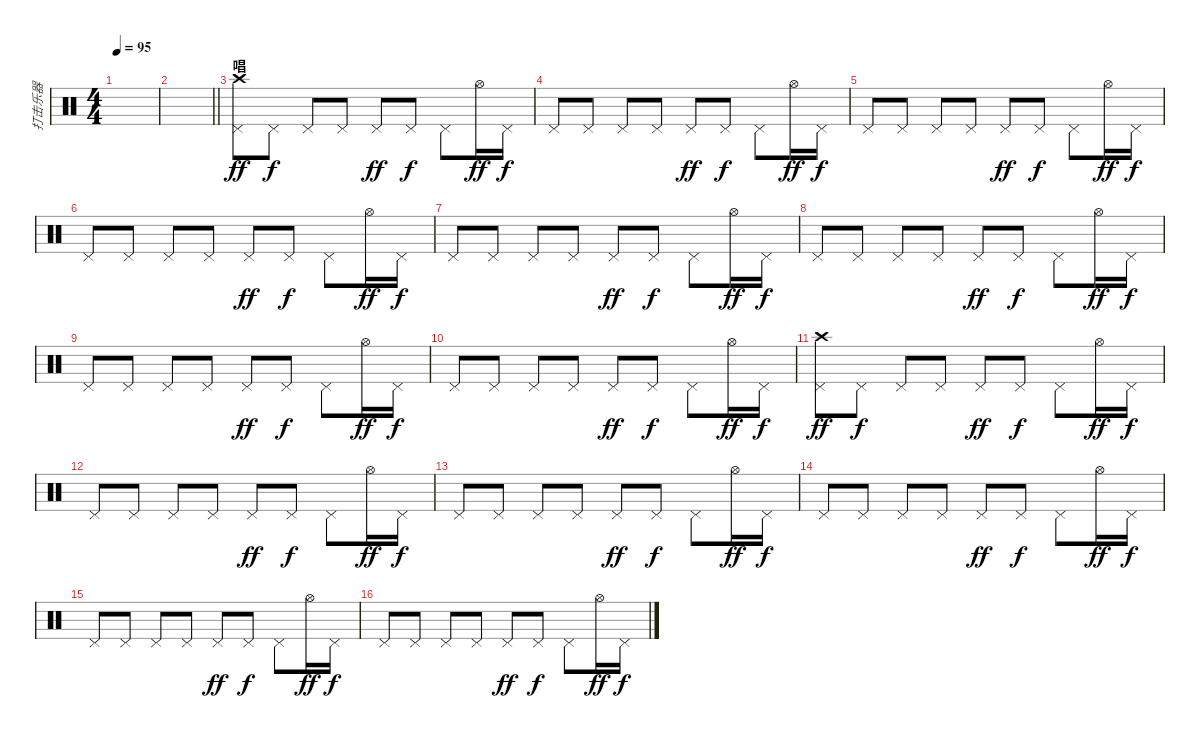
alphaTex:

\track ("打击乐器" "打击乐器") {instrument percussion}
\staff {score}
\articulation defaults
\ts (4 4)
\tempo 95
\clef neutral
\ks c
|
\barLineRight lightlight
|
\section ("" "唱")
("Pedal Hi-Hat (hit)" "Crash high (hit)").8{dy ff} "Pedal Hi-Hat (hit)".8{dy f} "Pedal Hi-Hat (hit)".8 "Pedal Hi-Hat (hit)".8 "Pedal Hi-Hat (hit)".8{dy ff} "Pedal Hi-Hat (hit)".8{dy f} "Pedal Hi-Hat (hit)".8 "Hi-Hat (open)".16{dy ff} "Pedal Hi-Hat (hit)".16{dy f} |
"Pedal Hi-Hat (hit)".8 "Pedal Hi-Hat (hit)".8 "Pedal Hi-Hat (hit)".8 "Pedal Hi-Hat (hit)".8 "Pedal Hi-Hat (hit)".8{dy ff} "Pedal Hi-Hat (hit)".8{dy f} "Pedal Hi-Hat (hit)".8 "Hi-Hat (open)".16{dy ff} "Pedal Hi-Hat (hit)".16{dy f} |
"Pedal Hi-Hat (hit)".8 "Pedal Hi-Hat (hit)".8 "Pedal Hi-Hat (hit)".8 "Pedal Hi-Hat (hit)".8 "Pedal Hi-Hat (hit)".8{dy ff} "Pedal Hi-Hat (hit)".8{dy f} "Pedal Hi-Hat (hit)".8 "Hi-Hat (open)".16{dy ff} "Pedal Hi-Hat (hit)".16{dy f} |
"Pedal Hi-Hat (hit)".8 "Pedal Hi-Hat (hit)".8 "Pedal Hi-Hat (hit)".8 "Pedal Hi-Hat (hit)".8 "Pedal Hi-Hat (hit)".8{dy ff} "Pedal Hi-Hat (hit)".8{dy f} "Pedal Hi-Hat (hit)".8 "Hi-Hat (open)".16{dy ff} "Pedal Hi-Hat (hit)".16{dy f} |
"Pedal Hi-Hat (hit)".8 "Pedal Hi-Hat (hit)".8 "Pedal Hi-Hat (hit)".8 "Pedal Hi-Hat (hit)".8 "Pedal Hi-Hat (hit)".8{dy ff} "Pedal Hi-Hat (hit)".8{dy f} "Pedal Hi-Hat (hit)".8 "Hi-Hat (open)".16{dy ff} "Pedal Hi-Hat (hit)".16{dy f} |
"Pedal Hi-Hat (hit)".8 "Pedal Hi-Hat (hit)".8 "Pedal Hi-Hat (hit)".8 "Pedal Hi-Hat (hit)".8 "Pedal Hi-Hat (hit)".8{dy ff} "Pedal Hi-Hat (hit)".8{dy f} "Pedal Hi-Hat (hit)".8 "Hi-Hat (open)".16{dy ff} "Pedal Hi-Hat (hit)".16{dy f} |
"Pedal Hi-Hat (hit)".8 "Pedal Hi-Hat (hit)".8 "Pedal Hi-Hat (hit)".8 "Pedal Hi-Hat (hit)".8 "Pedal Hi-Hat (hit)".8{dy ff} "Pedal Hi-Hat (hit)".8{dy f} "Pedal Hi-Hat (hit)".8 "Hi-Hat (open)".16{dy ff} "Pedal Hi-Hat (hit)".16{dy f} |
"Pedal Hi-Hat (hit)".8 "Pedal Hi-Hat (hit)".8 "Pedal Hi-Hat (hit)".8 "Pedal Hi-Hat (hit)".8 "Pedal Hi-Hat (hit)".8{dy ff} "Pedal Hi-Hat (hit)".8{dy f} "Pedal Hi-Hat (hit)".8 "Hi-Hat (open)".16{dy ff} "Pedal Hi-Hat (hit)".16{dy f} |
("Pedal Hi-Hat (hit)" "Crash high (hit)").8{dy ff} "Pedal Hi-Hat (hit)".8{dy f} "Pedal Hi-Hat (hit)".8 "Pedal Hi-Hat (hit)".8 "Pedal Hi-Hat (hit)".8{dy ff} "Pedal Hi-Hat (hit)".8{dy f} "Pedal Hi-Hat (hit)".8 "Hi-Hat (open)".16{dy ff} "Pedal Hi-Hat (hit)".16{dy f} |
"Pedal Hi-Hat (hit)".8 "Pedal Hi-Hat (hit)".8 "Pedal Hi-Hat (hit)".8 "Pedal Hi-Hat (hit)".8 "Pedal Hi-Hat (hit)".8{dy ff} "Pedal Hi-Hat (hit)".8{dy f} "Pedal Hi-Hat (hit)".8 "Hi-Hat (open)".16{dy ff} "Pedal Hi-Hat (hit)".16{dy f} |
"Pedal Hi-Hat (hit)".8 "Pedal Hi-Hat (hit)".8 "Pedal Hi-Hat (hit)".8 "Pedal Hi-Hat (hit)".8 "Pedal Hi-Hat (hit)".8{dy ff} "Pedal Hi-Hat (hit)".8{dy f} "Pedal Hi-Hat (hit)".8 "Hi-Hat (open)".16{dy ff} "Pedal Hi-Hat (hit)".16{dy f} |
"Pedal Hi-Hat (hit)".8 "Pedal Hi-Hat (hit)".8 "Pedal Hi-Hat (hit)".8 "Pedal Hi-Hat (hit)".8 "Pedal Hi-Hat (hit)".8{dy ff} "Pedal Hi-Hat (hit)".8{dy f} "Pedal Hi-Hat (hit)".8 "Hi-Hat (open)".16{dy ff} "Pedal Hi-Hat (hit)".16{dy f} |
"Pedal Hi-Hat (hit)".8 "Pedal Hi-Hat (hit)".8 "Pedal Hi-Hat (hit)".8 "Pedal Hi-Hat (hit)".8 "Pedal Hi-Hat (hit)".8{dy ff} "Pedal Hi-Hat (hit)".8{dy f} "Pedal Hi-Hat (hit)".8 "Hi-Hat (open)".16{dy ff} "Pedal Hi-Hat (hit)".16{dy f} |
"Pedal Hi-Hat (hit)".8 "Pedal Hi-Hat (hit)".8 "Pedal Hi-Hat (hit)".8 "Pedal Hi-Hat (hit)".8 "Pedal Hi-Hat (hit)".8{dy ff} "Pedal Hi-Hat (hit)".8{dy f} "Pedal Hi-Hat (hit)".8 "Hi-Hat (open)".16{dy ff} "Pedal Hi-Hat (hit)".16{dy f}
